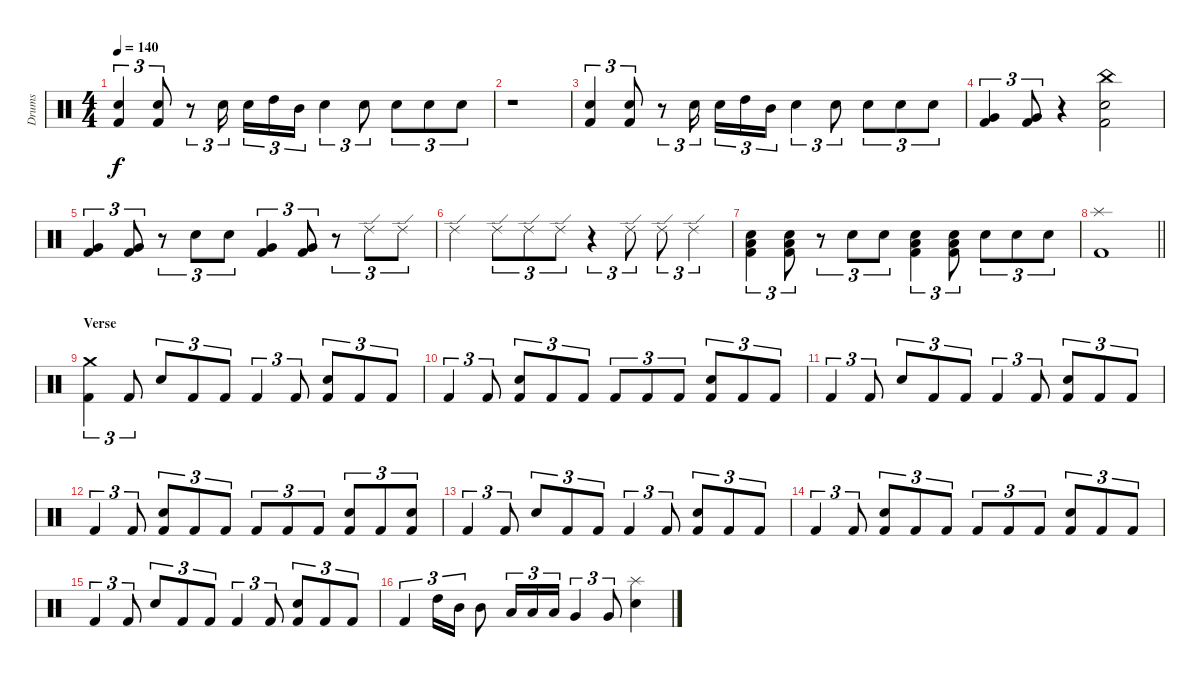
\track ("Drums" "Drums") {instrument percussion}
\staff {score}
\articulation defaults
\ts (4 4)
\tempo 140
\clef neutral
\ks c
("Electric Snare (hit)" "Kick (hit) 2").4{tu (3 2) dy f} ("Electric Snare (hit)" "Kick (hit) 2").8{tu (3 2)} r.8{tu (3 2)} "Electric Snare (hit)".16{tu (3 2) beam splitsecondary} "Electric Snare (hit)".16{tu (3 2)} "High Tom (hit)".16{tu (3 2)} "Mid Tom (hit)".16{tu (3 2)} "Electric Snare (hit)".4{tu (3 2)} "Electric Snare (hit)".8{tu (3 2)} "Electric Snare (hit)".8{tu (3 2)} "Electric Snare (hit)".8{tu (3 2)} "Electric Snare (hit)".8{tu (3 2)} |
r.1 |
("Electric Snare (hit)" "Kick (hit) 2").4{tu (3 2)} ("Electric Snare (hit)" "Kick (hit) 2").8{tu (3 2)} r.8{tu (3 2)} "Electric Snare (hit)".16{tu (3 2) beam splitsecondary} "Electric Snare (hit)".16{tu (3 2)} "High Tom (hit)".16{tu (3 2)} "Mid Tom (hit)".16{tu (3 2)} "Electric Snare (hit)".4{tu (3 2)} "Electric Snare (hit)".8{tu (3 2)} "Electric Snare (hit)".8{tu (3 2)} "Electric Snare (hit)".8{tu (3 2)} "Electric Snare (hit)".8{tu (3 2)} |
("Very Low Tom (hit)" "Kick (hit) 2").4{tu (3 2)} ("Very Low Tom (hit)" "Kick (hit) 2").8{tu (3 2)} r.4 ("China (hit)" "Electric Snare (hit)" "Kick (hit) 2").2 |
("Very Low Tom (hit)" "Kick (hit) 2").4{tu (3 2)} ("Very Low Tom (hit)" "Kick (hit) 2").8{tu (3 2)} r.8{tu (3 2)} "Electric Snare (hit)".8{tu (3 2)} "Electric Snare (hit)".8{tu (3 2)} ("Very Low Tom (hit)" "Kick (hit) 2").4{tu (3 2)} ("Very Low Tom (hit)" "Kick (hit) 2").8{tu (3 2)} r.8{tu (3 2)} "Ride (edge) 2".8{tu (3 2)} "Ride (edge) 2".8{tu (3 2)} |
"Ride (edge) 2".4 "Ride (edge) 2".8{tu (3 2)} "Ride (edge) 2".8{tu (3 2)} "Ride (edge) 2".8{tu (3 2)} r.4{tu (3 2)} "Ride (edge) 2".8{tu (3 2)} "Ride (edge) 2".8{tu (3 2)} "Ride (edge) 2".4{tu (3 2)} |
("Low Floor Tom (hit)" "Electric Snare (hit)" "Kick (hit) 2").4{tu (3 2)} ("Low Floor Tom (hit)" "Electric Snare (hit)" "Kick (hit) 2").8{tu (3 2)} r.8{tu (3 2)} "Electric Snare (hit)".8{tu (3 2)} "Electric Snare (hit)".8{tu (3 2)} ("Low Floor Tom (hit)" "Electric Snare (hit)" "Kick (hit) 2").4{tu (3 2)} ("Low Floor Tom (hit)" "Electric Snare (hit)" "Kick (hit) 2").8{tu (3 2)} "Electric Snare (hit)".8{tu (3 2)} "Electric Snare (hit)".8{tu (3 2)} "Electric Snare (hit)".8{tu (3 2)} |
\barLineRight lightlight
("Splash (hit)" "Kick (hit) 2").1 |
\section ("" "Verse")
("Crash medium (hit)" "Kick (hit) 2").4{tu (3 2)} "Kick (hit) 2".8{tu (3 2)} "Electric Snare (hit)".8{tu (3 2)} "Kick (hit) 2".8{tu (3 2)} "Kick (hit) 2".8{tu (3 2)} "Kick (hit) 2".4{tu (3 2)} "Kick (hit) 2".8{tu (3 2)} ("Electric Snare (hit)" "Kick (hit) 2").8{tu (3 2)} "Kick (hit) 2".8{tu (3 2)} "Kick (hit) 2".8{tu (3 2)} |
"Kick (hit) 2".4{tu (3 2)} "Kick (hit) 2".8{tu (3 2)} ("Electric Snare (hit)" "Kick (hit) 2").8{tu (3 2)} "Kick (hit) 2".8{tu (3 2)} "Kick (hit) 2".8{tu (3 2)} "Kick (hit) 2".8{tu (3 2)} "Kick (hit) 2".8{tu (3 2)} "Kick (hit) 2".8{tu (3 2)} ("Electric Snare (hit)" "Kick (hit) 2").8{tu (3 2)} "Kick (hit) 2".8{tu (3 2)} "Kick (hit) 2".8{tu (3 2)} |
"Kick (hit) 2".4{tu (3 2)} "Kick (hit) 2".8{tu (3 2)} "Electric Snare (hit)".8{tu (3 2)} "Kick (hit) 2".8{tu (3 2)} "Kick (hit) 2".8{tu (3 2)} "Kick (hit) 2".4{tu (3 2)} "Kick (hit) 2".8{tu (3 2)} ("Electric Snare (hit)" "Kick (hit) 2").8{tu (3 2)} "Kick (hit) 2".8{tu (3 2)} "Kick (hit) 2".8{tu (3 2)} |
"Kick (hit) 2".4{tu (3 2)} "Kick (hit) 2".8{tu (3 2)} ("Electric Snare (hit)" "Kick (hit) 2").8{tu (3 2)} "Kick (hit) 2".8{tu (3 2)} "Kick (hit) 2".8{tu (3 2)} "Kick (hit) 2".8{tu (3 2)} "Kick (hit) 2".8{tu (3 2)} "Kick (hit) 2".8{tu (3 2)} ("Electric Snare (hit)" "Kick (hit) 2").8{tu (3 2)} "Kick (hit) 2".8{tu (3 2)} ("Electric Snare (hit)" "Kick (hit) 2").8{tu (3 2)} |
"Kick (hit) 2".4{tu (3 2)} "Kick (hit) 2".8{tu (3 2)} "Electric Snare (hit)".8{tu (3 2)} "Kick (hit) 2".8{tu (3 2)} "Kick (hit) 2".8{tu (3 2)} "Kick (hit) 2".4{tu (3 2)} "Kick (hit) 2".8{tu (3 2)} ("Electric Snare (hit)" "Kick (hit) 2").8{tu (3 2)} "Kick (hit) 2".8{tu (3 2)} "Kick (hit) 2".8{tu (3 2)} |
"Kick (hit) 2".4{tu (3 2)} "Kick (hit) 2".8{tu (3 2)} ("Electric Snare (hit)" "Kick (hit) 2").8{tu (3 2)} "Kick (hit) 2".8{tu (3 2)} "Kick (hit) 2".8{tu (3 2)} "Kick (hit) 2".8{tu (3 2)} "Kick (hit) 2".8{tu (3 2)} "Kick (hit) 2".8{tu (3 2)} ("Electric Snare (hit)" "Kick (hit) 2").8{tu (3 2)} "Kick (hit) 2".8{tu (3 2)} "Kick (hit) 2".8{tu (3 2)} |
"Kick (hit) 2".4{tu (3 2)} "Kick (hit) 2".8{tu (3 2)} "Electric Snare (hit)".8{tu (3 2)} "Kick (hit) 2".8{tu (3 2)} "Kick (hit) 2".8{tu (3 2)} "Kick (hit) 2".4{tu (3 2)} "Kick (hit) 2".8{tu (3 2)} ("Electric Snare (hit)" "Kick (hit) 2").8{tu (3 2)} "Kick (hit) 2".8{tu (3 2)} "Kick (hit) 2".8{tu (3 2)} |
"Kick (hit) 2".4{tu (3 2)} "High Tom (hit)".16{tu (3 2)} "Mid Tom (hit)".16{tu (3 2)} "Mid Tom (hit)".8 "Low Tom (hit)".16{tu (3 2)} "Low Tom (hit)".16{tu (3 2)} "Low Tom (hit)".16{tu (3 2)} "Very Low Tom (hit)".4{tu (3 2)} "Very Low Tom (hit)".8{tu (3 2)} ("Splash (hit)" "Electric Snare (hit)").4
